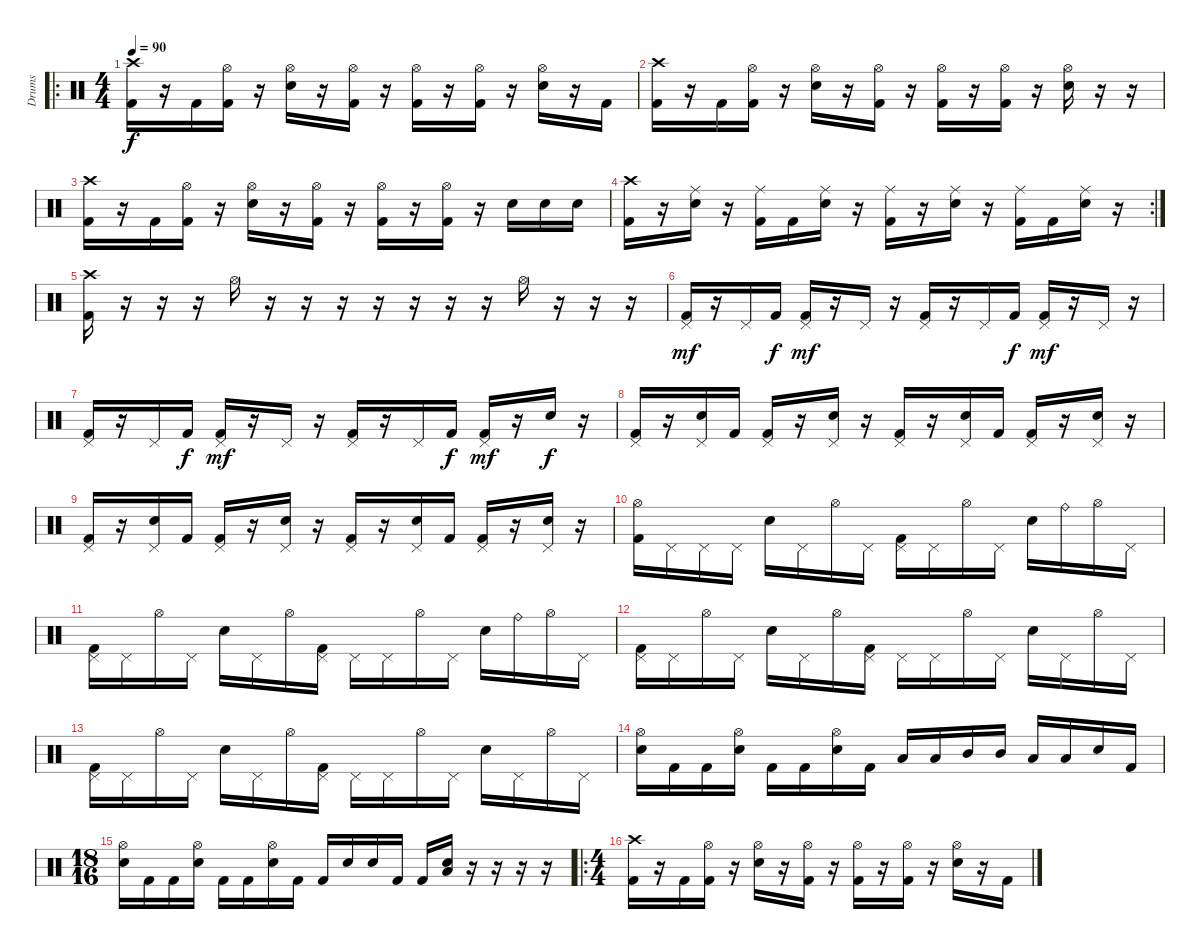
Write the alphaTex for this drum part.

\track ("Drums" "Drums") {instrument percussion}
\staff {score}
\articulation defaults
\ro
\ts (4 4)
\tempo 90
\clef neutral
\ks c
("Crash high (hit)" "Kick (hit) 2").16{dy f} r.16 "Kick (hit) 2".16 ("Hi-Hat (open)" "Kick (hit) 2").16 r.16 ("Hi-Hat (open)" "Electric Snare (hit)").16 r.16 ("Hi-Hat (open)" "Kick (hit) 2").16 r.16 ("Hi-Hat (open)" "Kick (hit) 2").16 r.16 ("Hi-Hat (open)" "Kick (hit) 2").16 r.16 ("Hi-Hat (open)" "Electric Snare (hit)").16 r.16 "Kick (hit) 2".16 |
("Crash high (hit)" "Kick (hit) 2").16 r.16 "Kick (hit) 2".16 ("Hi-Hat (open)" "Kick (hit) 2").16 r.16 ("Hi-Hat (open)" "Electric Snare (hit)").16 r.16 ("Hi-Hat (open)" "Kick (hit) 2").16 r.16 ("Hi-Hat (open)" "Kick (hit) 2").16 r.16 ("Hi-Hat (open)" "Kick (hit) 2").16 r.16 ("Hi-Hat (open)" "Electric Snare (hit)").16 r.16 r.16 |
("Crash high (hit)" "Kick (hit) 2").16 r.16 "Kick (hit) 2".16 ("Hi-Hat (open)" "Kick (hit) 2").16 r.16 ("Hi-Hat (open)" "Electric Snare (hit)").16 r.16 ("Hi-Hat (open)" "Kick (hit) 2").16 r.16 ("Hi-Hat (open)" "Kick (hit) 2").16 r.16 ("Hi-Hat (open)" "Kick (hit) 2").16 r.16 "Electric Snare (hit)".16 "Electric Snare (hit)".16 "Electric Snare (hit)".16 |
\rc 2
("Crash high (hit)" "Kick (hit) 2").16 r.16 ("Ride (middle)" "Electric Snare (hit)").16 r.16 ("Ride (middle)" "Kick (hit) 2").16 "Kick (hit) 2".16 ("Ride (middle)" "Electric Snare (hit)").16 r.16 ("Ride (middle)" "Kick (hit) 2").16 r.16 ("Ride (middle)" "Electric Snare (hit)").16 r.16 ("Ride (middle)" "Kick (hit) 2").16 "Kick (hit) 2".16 ("Ride (middle)" "Electric Snare (hit)").16 r.16 |
("Crash high (hit)" "Kick (hit) 2").16 r.16 r.16 r.16 "Hi-Hat (open)".16 r.16 r.16 r.16 r.16 r.16 r.16 r.16 "Hi-Hat (open)".16 r.16 r.16 r.16 |
("Pedal Hi-Hat (hit)" "Kick (hit) 2").16{dy mf} r.16 "Pedal Hi-Hat (hit)".16 "Kick (hit) 2".16{dy f} ("Pedal Hi-Hat (hit)" "Kick (hit) 2").16{dy mf} r.16 "Pedal Hi-Hat (hit)".16 r.16 ("Pedal Hi-Hat (hit)" "Kick (hit) 2").16 r.16 "Pedal Hi-Hat (hit)".16 "Kick (hit) 2".16{dy f} ("Pedal Hi-Hat (hit)" "Kick (hit) 2").16{dy mf} r.16 "Pedal Hi-Hat (hit)".16 r.16 |
("Pedal Hi-Hat (hit)" "Kick (hit) 2").16 r.16 "Pedal Hi-Hat (hit)".16 "Kick (hit) 2".16{dy f} ("Pedal Hi-Hat (hit)" "Kick (hit) 2").16{dy mf} r.16 "Pedal Hi-Hat (hit)".16 r.16 ("Pedal Hi-Hat (hit)" "Kick (hit) 2").16 r.16 "Pedal Hi-Hat (hit)".16 "Kick (hit) 2".16{dy f} ("Pedal Hi-Hat (hit)" "Kick (hit) 2").16{dy mf} r.16 "Electric Snare (hit)".16{dy f} r.16 |
("Pedal Hi-Hat (hit)" "Kick (hit) 2").16 r.16 ("Pedal Hi-Hat (hit)" "Electric Snare (hit)").16 "Kick (hit) 2".16 ("Pedal Hi-Hat (hit)" "Kick (hit) 2").16 r.16 ("Pedal Hi-Hat (hit)" "Electric Snare (hit)").16 r.16 ("Pedal Hi-Hat (hit)" "Kick (hit) 2").16 r.16 ("Pedal Hi-Hat (hit)" "Electric Snare (hit)").16 "Kick (hit) 2".16 ("Pedal Hi-Hat (hit)" "Kick (hit) 2").16 r.16 ("Pedal Hi-Hat (hit)" "Electric Snare (hit)").16 r.16 |
("Pedal Hi-Hat (hit)" "Kick (hit) 2").16 r.16 ("Pedal Hi-Hat (hit)" "Electric Snare (hit)").16 "Kick (hit) 2".16 ("Pedal Hi-Hat (hit)" "Kick (hit) 2").16 r.16 ("Pedal Hi-Hat (hit)" "Electric Snare (hit)").16 r.16 ("Pedal Hi-Hat (hit)" "Kick (hit) 2").16 r.16 ("Pedal Hi-Hat (hit)" "Electric Snare (hit)").16 "Kick (hit) 2".16 ("Pedal Hi-Hat (hit)" "Kick (hit) 2").16 r.16 ("Pedal Hi-Hat (hit)" "Electric Snare (hit)").16 r.16 |
("Hi-Hat (open)" "Kick (hit) 2").16 "Pedal Hi-Hat (hit)".16 "Pedal Hi-Hat (hit)".16 "Pedal Hi-Hat (hit)".16 "Electric Snare (hit)".16 "Pedal Hi-Hat (hit)".16 "Hi-Hat (open)".16 "Pedal Hi-Hat (hit)".16 ("Pedal Hi-Hat (hit)" "Kick (hit) 2").16 "Pedal Hi-Hat (hit)".16 "Hi-Hat (open)".16 "Pedal Hi-Hat (hit)".16 "Electric Snare (hit)".16 "Ride (bell)".16 "Hi-Hat (open)".16 "Pedal Hi-Hat (hit)".16 |
("Pedal Hi-Hat (hit)" "Kick (hit) 2").16 "Pedal Hi-Hat (hit)".16 "Hi-Hat (open)".16 "Pedal Hi-Hat (hit)".16 "Electric Snare (hit)".16 "Pedal Hi-Hat (hit)".16 "Hi-Hat (open)".16 ("Pedal Hi-Hat (hit)" "Kick (hit) 2").16 "Pedal Hi-Hat (hit)".16 "Pedal Hi-Hat (hit)".16 "Hi-Hat (open)".16 "Pedal Hi-Hat (hit)".16 "Electric Snare (hit)".16 "Ride (bell)".16 "Hi-Hat (open)".16 "Pedal Hi-Hat (hit)".16 |
("Pedal Hi-Hat (hit)" "Kick (hit) 2").16 "Pedal Hi-Hat (hit)".16 "Hi-Hat (open)".16 "Pedal Hi-Hat (hit)".16 "Electric Snare (hit)".16 "Pedal Hi-Hat (hit)".16 "Hi-Hat (open)".16 ("Pedal Hi-Hat (hit)" "Kick (hit) 2").16 "Pedal Hi-Hat (hit)".16 "Pedal Hi-Hat (hit)".16 "Hi-Hat (open)".16 "Pedal Hi-Hat (hit)".16 "Electric Snare (hit)".16 "Pedal Hi-Hat (hit)".16 "Hi-Hat (open)".16 "Pedal Hi-Hat (hit)".16 |
("Pedal Hi-Hat (hit)" "Kick (hit) 2").16 "Pedal Hi-Hat (hit)".16 "Hi-Hat (open)".16 "Pedal Hi-Hat (hit)".16 "Electric Snare (hit)".16 "Pedal Hi-Hat (hit)".16 "Hi-Hat (open)".16 ("Pedal Hi-Hat (hit)" "Kick (hit) 2").16 "Pedal Hi-Hat (hit)".16 "Pedal Hi-Hat (hit)".16 "Hi-Hat (open)".16 "Pedal Hi-Hat (hit)".16 "Electric Snare (hit)".16 "Pedal Hi-Hat (hit)".16 "Hi-Hat (open)".16 "Pedal Hi-Hat (hit)".16 |
("Hi-Hat (open)" "Electric Snare (hit)").16 "Kick (hit) 2".16 "Kick (hit) 2".16 ("Hi-Hat (open)" "Electric Snare (hit)").16 "Kick (hit) 2".16 "Kick (hit) 2".16 ("Hi-Hat (open)" "Electric Snare (hit)").16 "Kick (hit) 2".16 "Low Tom (hit)".16 "Low Tom (hit)".16 "Mid Tom (hit)".16 "Mid Tom (hit)".16 "Low Tom (hit)".16 "Low Tom (hit)".16 "Electric Snare (hit)".16 "Kick (hit) 2".16 |
\ts (18 16)
("Hi-Hat (open)" "Electric Snare (hit)").16 "Kick (hit) 2".16 "Kick (hit) 2".16 ("Hi-Hat (open)" "Electric Snare (hit)").16 "Kick (hit) 2".16 "Kick (hit) 2".16 ("Hi-Hat (open)" "Electric Snare (hit)").16 "Kick (hit) 2".16 "Kick (hit) 2".16 "Electric Snare (hit)".16 "Electric Snare (hit)".16 "Kick (hit) 2".16 "Kick (hit) 2".16 ("Low Tom (hit)" "Electric Snare (hit)").16 r.16 r.16 r.16 r.16 |
\ro
\ts (4 4)
("Crash high (hit)" "Kick (hit) 2").16 r.16 "Kick (hit) 2".16 ("Hi-Hat (open)" "Kick (hit) 2").16 r.16 ("Hi-Hat (open)" "Electric Snare (hit)").16 r.16 ("Hi-Hat (open)" "Kick (hit) 2").16 r.16 ("Hi-Hat (open)" "Kick (hit) 2").16 r.16 ("Hi-Hat (open)" "Kick (hit) 2").16 r.16 ("Hi-Hat (open)" "Electric Snare (hit)").16 r.16 "Kick (hit) 2".16
